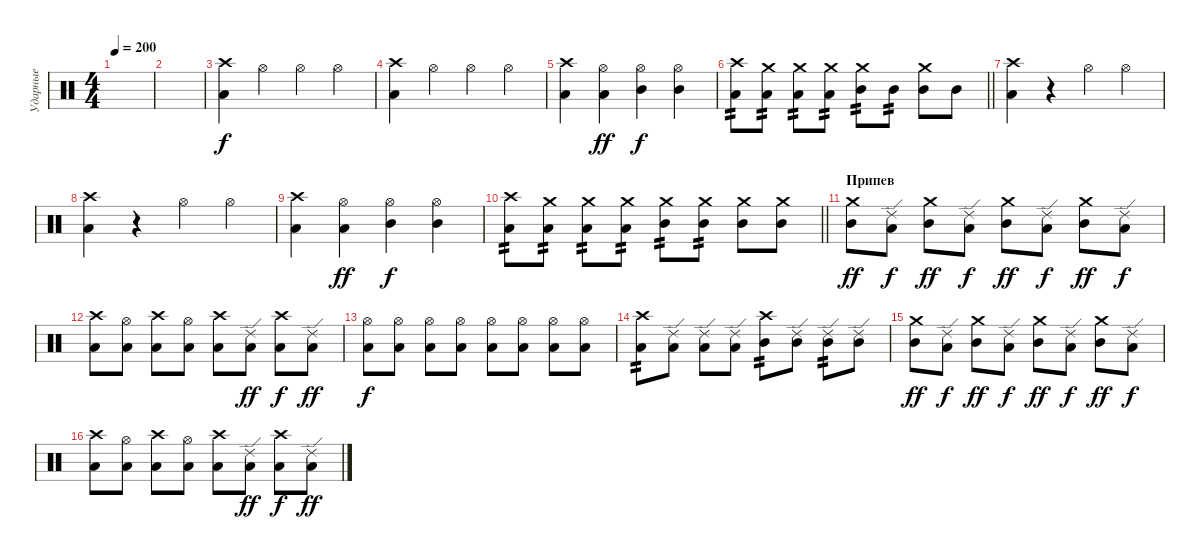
\track ("Ударные" "Ударные") {instrument percussion}
\staff {score}
\articulation defaults
\ts (4 4)
\tempo 200
\clef neutral
\ks c
|
|
("Crash high (hit)" "Low Tom (hit)").4 "Hi-Hat (open)".4 "Hi-Hat (open)".4 "Hi-Hat (open)".4 |
("Crash high (hit)" "Low Tom (hit)").4 "Hi-Hat (open)".4 "Hi-Hat (open)".4 "Hi-Hat (open)".4 |
("Crash high (hit)" "Low Tom (hit)").4 ("Hi-Hat (open)" "Low Floor Tom (hit)").4{dy ff} ("Hi-Hat (open)" "Mid Tom (hit)").4{dy f} ("Hi-Hat (open)" "Mid Tom (hit)").4 |
\barLineRight lightlight
("Crash high (hit)" "Low Tom (hit)").8{tp 2} ("Crash medium (hit)" "Low Tom (hit)").8{tp 2} ("Crash medium (hit)" "Low Tom (hit)").8{tp 2} ("Crash medium (hit)" "Low Tom (hit)").8{tp 2} ("Crash medium (hit)" "Mid Tom (hit)").8{tp 2} "Mid Tom (hit)".8{tp 2} ("Crash medium (hit)" "Mid Tom (hit)").8 "Mid Tom (hit)".8 |
("Crash high (hit)" "Low Tom (hit)").4 r.4 "Hi-Hat (open)".4 "Hi-Hat (open)".4 |
("Crash high (hit)" "Low Tom (hit)").4 r.4 "Hi-Hat (open)".4 "Hi-Hat (open)".4 |
("Crash high (hit)" "Low Tom (hit)").4 ("Hi-Hat (open)" "Low Floor Tom (hit)").4{dy ff} ("Hi-Hat (open)" "Mid Tom (hit)").4{dy f} ("Hi-Hat (open)" "Mid Tom (hit)").4 |
\barLineRight lightlight
("Crash high (hit)" "Low Tom (hit)").8{tp 2} ("Crash medium (hit)" "Low Tom (hit)").8{tp 2} ("Crash medium (hit)" "Low Tom (hit)").8{tp 2} ("Crash medium (hit)" "Low Tom (hit)").8{tp 2} ("Crash medium (hit)" "Mid Tom (hit)").8{tp 2} ("Crash medium (hit)" "Mid Tom (hit)").8{tp 2} ("Crash medium (hit)" "Mid Tom (hit)").8 ("Crash medium (hit)" "Mid Tom (hit)").8 |
\section ("" "Припев")
("Crash medium (hit)" "Mid Tom (hit)").8{dy ff} ("Ride (edge) 2" "Low Tom (hit)").8{dy f} ("Crash medium (hit)" "Mid Tom (hit)").8{dy ff} ("Ride (edge) 2" "Low Tom (hit)").8{dy f} ("Crash medium (hit)" "Mid Tom (hit)").8{dy ff} ("Ride (edge) 2" "Low Tom (hit)").8{dy f} ("Crash medium (hit)" "Mid Tom (hit)").8{dy ff} ("Ride (edge) 2" "Low Tom (hit)").8{dy f} |
("Crash high (hit)" "Low Tom (hit)").8 ("Hi-Hat (open)" "Low Floor Tom (hit)").8 ("Crash high (hit)" "Low Tom (hit)").8 ("Hi-Hat (open)" "Low Floor Tom (hit)").8 ("Crash high (hit)" "Low Tom (hit)").8 ("Ride (edge) 2" "Low Floor Tom (hit)").8{dy ff} ("Crash high (hit)" "Low Tom (hit)").8{dy f} ("Ride (edge) 2" "Low Floor Tom (hit)").8{dy ff} |
("Hi-Hat (open)" "Low Tom (hit)").8{dy f} ("Hi-Hat (open)" "Low Tom (hit)").8 ("Hi-Hat (open)" "Low Tom (hit)").8 ("Hi-Hat (open)" "Low Tom (hit)").8 ("Hi-Hat (open)" "Low Tom (hit)").8 ("Hi-Hat (open)" "Low Tom (hit)").8 ("Hi-Hat (open)" "Low Tom (hit)").8 ("Hi-Hat (open)" "Low Tom (hit)").8 |
("Crash high (hit)" "Low Tom (hit)").8{tp 2} ("Ride (edge) 2" "Low Tom (hit)").8 ("Ride (edge) 2" "Low Tom (hit)").8 ("Ride (edge) 2" "Low Tom (hit)").8 ("Crash high (hit)" "Mid Tom (hit)").8{tp 2} ("Ride (edge) 2" "Mid Tom (hit)").8 ("Ride (edge) 2" "Mid Tom (hit)").8{tp 2} ("Ride (edge) 2" "Mid Tom (hit)").8 |
("Crash medium (hit)" "Mid Tom (hit)").8{dy ff} ("Ride (edge) 2" "Low Tom (hit)").8{dy f} ("Crash medium (hit)" "Mid Tom (hit)").8{dy ff} ("Ride (edge) 2" "Low Tom (hit)").8{dy f} ("Crash medium (hit)" "Mid Tom (hit)").8{dy ff} ("Ride (edge) 2" "Low Tom (hit)").8{dy f} ("Crash medium (hit)" "Mid Tom (hit)").8{dy ff} ("Ride (edge) 2" "Low Tom (hit)").8{dy f} |
("Crash high (hit)" "Low Tom (hit)").8 ("Hi-Hat (open)" "Low Floor Tom (hit)").8 ("Crash high (hit)" "Low Tom (hit)").8 ("Hi-Hat (open)" "Low Floor Tom (hit)").8 ("Crash high (hit)" "Low Tom (hit)").8 ("Ride (edge) 2" "Low Floor Tom (hit)").8{dy ff} ("Crash high (hit)" "Low Tom (hit)").8{dy f} ("Ride (edge) 2" "Low Floor Tom (hit)").8{dy ff}
